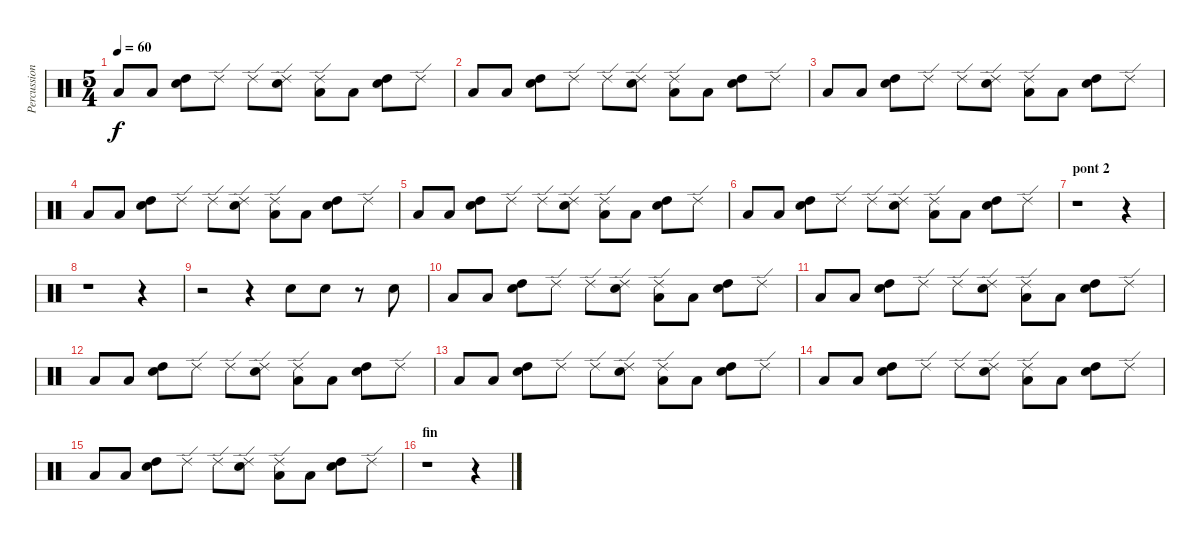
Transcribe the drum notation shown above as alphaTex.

\track ("Percussions" "Percussion") {instrument percussion}
\staff {score}
\articulation defaults
\ts (5 4)
\tempo 60
\clef neutral
\ks c "Low Floor Tom (hit)".8{dy f} "Low Floor Tom (hit)".8
("Electric Snare (hit)" "High Tom (hit)").8 "Ride (edge) 2".8 "Ride (edge) 2".8 ("Ride (edge) 2" "Electric Snare (hit)").8 ("Ride (edge) 2" "Low Floor Tom (hit)").8 "Low Floor Tom (hit)".8 ("Electric Snare (hit)" "High Tom (hit)").8 "Ride (edge) 2".8 |
"Low Floor Tom (hit)".8 "Low Floor Tom (hit)".8 ("Electric Snare (hit)" "High Tom (hit)").8 "Ride (edge) 2".8 "Ride (edge) 2".8 ("Ride (edge) 2" "Electric Snare (hit)").8 ("Ride (edge) 2" "Low Floor Tom (hit)").8 "Low Floor Tom (hit)".8 ("Electric Snare (hit)" "High Tom (hit)").8 "Ride (edge) 2".8 |
"Low Floor Tom (hit)".8 "Low Floor Tom (hit)".8 ("Electric Snare (hit)" "High Tom (hit)").8 "Ride (edge) 2".8 "Ride (edge) 2".8 ("Ride (edge) 2" "Electric Snare (hit)").8 ("Ride (edge) 2" "Low Floor Tom (hit)").8 "Low Floor Tom (hit)".8 ("Electric Snare (hit)" "High Tom (hit)").8 "Ride (edge) 2".8 |
"Low Floor Tom (hit)".8 "Low Floor Tom (hit)".8 ("Electric Snare (hit)" "High Tom (hit)").8 "Ride (edge) 2".8 "Ride (edge) 2".8 ("Ride (edge) 2" "Electric Snare (hit)").8 ("Ride (edge) 2" "Low Floor Tom (hit)").8 "Low Floor Tom (hit)".8 ("Electric Snare (hit)" "High Tom (hit)").8 "Ride (edge) 2".8 |
"Low Floor Tom (hit)".8 "Low Floor Tom (hit)".8 ("Electric Snare (hit)" "High Tom (hit)").8 "Ride (edge) 2".8 "Ride (edge) 2".8 ("Ride (edge) 2" "Electric Snare (hit)").8 ("Ride (edge) 2" "Low Floor Tom (hit)").8 "Low Floor Tom (hit)".8 ("Electric Snare (hit)" "High Tom (hit)").8 "Ride (edge) 2".8 |
"Low Floor Tom (hit)".8 "Low Floor Tom (hit)".8 ("Electric Snare (hit)" "High Tom (hit)").8 "Ride (edge) 2".8 "Ride (edge) 2".8 ("Ride (edge) 2" "Electric Snare (hit)").8 ("Ride (edge) 2" "Low Floor Tom (hit)").8 "Low Floor Tom (hit)".8 ("Electric Snare (hit)" "High Tom (hit)").8 "Ride (edge) 2".8 |
\section ("" "pont 2")
r.1 r.4 |
r.1 r.4 |
r.2 r.4 "Electric Snare (hit)".8 "Electric Snare (hit)".8 r.8 "Electric Snare (hit)".8 |
"Low Floor Tom (hit)".8 "Low Floor Tom (hit)".8 ("Electric Snare (hit)" "High Tom (hit)").8 "Ride (edge) 2".8 "Ride (edge) 2".8 ("Ride (edge) 2" "Electric Snare (hit)").8 ("Ride (edge) 2" "Low Floor Tom (hit)").8 "Low Floor Tom (hit)".8 ("Electric Snare (hit)" "High Tom (hit)").8 "Ride (edge) 2".8 |
"Low Floor Tom (hit)".8 "Low Floor Tom (hit)".8 ("Electric Snare (hit)" "High Tom (hit)").8 "Ride (edge) 2".8 "Ride (edge) 2".8 ("Ride (edge) 2" "Electric Snare (hit)").8 ("Ride (edge) 2" "Low Floor Tom (hit)").8 "Low Floor Tom (hit)".8 ("Electric Snare (hit)" "High Tom (hit)").8 "Ride (edge) 2".8 |
"Low Floor Tom (hit)".8 "Low Floor Tom (hit)".8 ("Electric Snare (hit)" "High Tom (hit)").8 "Ride (edge) 2".8 "Ride (edge) 2".8 ("Ride (edge) 2" "Electric Snare (hit)").8 ("Ride (edge) 2" "Low Floor Tom (hit)").8 "Low Floor Tom (hit)".8 ("Electric Snare (hit)" "High Tom (hit)").8 "Ride (edge) 2".8 |
"Low Floor Tom (hit)".8 "Low Floor Tom (hit)".8 ("Electric Snare (hit)" "High Tom (hit)").8 "Ride (edge) 2".8 "Ride (edge) 2".8 ("Ride (edge) 2" "Electric Snare (hit)").8 ("Ride (edge) 2" "Low Floor Tom (hit)").8 "Low Floor Tom (hit)".8 ("Electric Snare (hit)" "High Tom (hit)").8 "Ride (edge) 2".8 |
"Low Floor Tom (hit)".8 "Low Floor Tom (hit)".8 ("Electric Snare (hit)" "High Tom (hit)").8 "Ride (edge) 2".8 "Ride (edge) 2".8 ("Ride (edge) 2" "Electric Snare (hit)").8 ("Ride (edge) 2" "Low Floor Tom (hit)").8 "Low Floor Tom (hit)".8 ("Electric Snare (hit)" "High Tom (hit)").8 "Ride (edge) 2".8 |
"Low Floor Tom (hit)".8 "Low Floor Tom (hit)".8 ("Electric Snare (hit)" "High Tom (hit)").8 "Ride (edge) 2".8 "Ride (edge) 2".8 ("Ride (edge) 2" "Electric Snare (hit)").8 ("Ride (edge) 2" "Low Floor Tom (hit)").8 "Low Floor Tom (hit)".8 ("Electric Snare (hit)" "High Tom (hit)").8 "Ride (edge) 2".8 |
\section ("" "fin")
r.1 r.4
